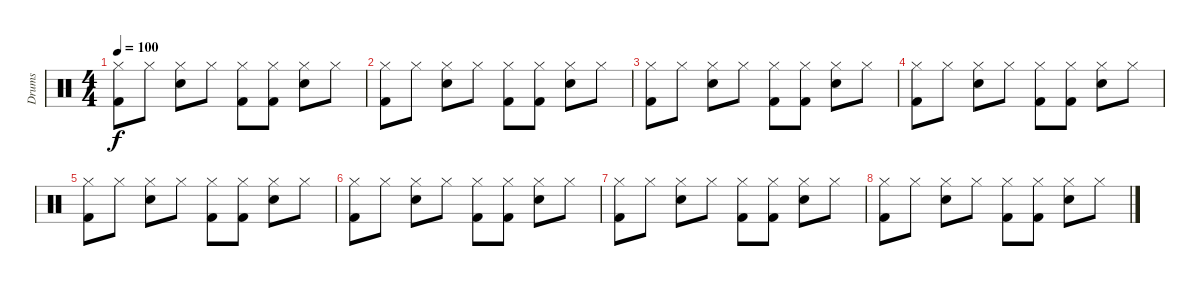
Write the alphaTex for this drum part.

\track ("Drums" "Drums") {instrument percussion}
\staff {score}
\articulation defaults
\ts (4 4)
\tempo 100
\clef neutral
\ks c
("Hi-Hat (closed)" "Kick (hit) 2").8{dy f} "Hi-Hat (closed)".8 ("Hi-Hat (closed)" "Electric Snare (hit)").8 "Hi-Hat (closed)".8 ("Hi-Hat (closed)" "Kick (hit) 2").8 ("Hi-Hat (closed)" "Kick (hit) 2").8 ("Hi-Hat (closed)" "Electric Snare (hit)").8 "Hi-Hat (closed)".8 |
("Hi-Hat (closed)" "Kick (hit) 2").8 "Hi-Hat (closed)".8 ("Hi-Hat (closed)" "Electric Snare (hit)").8 "Hi-Hat (closed)".8 ("Hi-Hat (closed)" "Kick (hit) 2").8 ("Hi-Hat (closed)" "Kick (hit) 2").8 ("Hi-Hat (closed)" "Electric Snare (hit)").8 "Hi-Hat (closed)".8 |
("Hi-Hat (closed)" "Kick (hit) 2").8 "Hi-Hat (closed)".8 ("Hi-Hat (closed)" "Electric Snare (hit)").8 "Hi-Hat (closed)".8 ("Hi-Hat (closed)" "Kick (hit) 2").8 ("Hi-Hat (closed)" "Kick (hit) 2").8 ("Hi-Hat (closed)" "Electric Snare (hit)").8 "Hi-Hat (closed)".8 |
("Hi-Hat (closed)" "Kick (hit) 2").8 "Hi-Hat (closed)".8 ("Hi-Hat (closed)" "Electric Snare (hit)").8 "Hi-Hat (closed)".8 ("Hi-Hat (closed)" "Kick (hit) 2").8 ("Hi-Hat (closed)" "Kick (hit) 2").8 ("Hi-Hat (closed)" "Electric Snare (hit)").8 "Hi-Hat (closed)".8 |
("Hi-Hat (closed)" "Kick (hit) 2").8 "Hi-Hat (closed)".8 ("Hi-Hat (closed)" "Electric Snare (hit)").8 "Hi-Hat (closed)".8 ("Hi-Hat (closed)" "Kick (hit) 2").8 ("Hi-Hat (closed)" "Kick (hit) 2").8 ("Hi-Hat (closed)" "Electric Snare (hit)").8 "Hi-Hat (closed)".8 |
("Hi-Hat (closed)" "Kick (hit) 2").8 "Hi-Hat (closed)".8 ("Hi-Hat (closed)" "Electric Snare (hit)").8 "Hi-Hat (closed)".8 ("Hi-Hat (closed)" "Kick (hit) 2").8 ("Hi-Hat (closed)" "Kick (hit) 2").8 ("Hi-Hat (closed)" "Electric Snare (hit)").8 "Hi-Hat (closed)".8 |
("Hi-Hat (closed)" "Kick (hit) 2").8 "Hi-Hat (closed)".8 ("Hi-Hat (closed)" "Electric Snare (hit)").8 "Hi-Hat (closed)".8 ("Hi-Hat (closed)" "Kick (hit) 2").8 ("Hi-Hat (closed)" "Kick (hit) 2").8 ("Hi-Hat (closed)" "Electric Snare (hit)").8 "Hi-Hat (closed)".8 |
("Hi-Hat (closed)" "Kick (hit) 2").8 "Hi-Hat (closed)".8 ("Hi-Hat (closed)" "Electric Snare (hit)").8 "Hi-Hat (closed)".8 ("Hi-Hat (closed)" "Kick (hit) 2").8 ("Hi-Hat (closed)" "Kick (hit) 2").8 ("Hi-Hat (closed)" "Electric Snare (hit)").8 "Hi-Hat (closed)".8
